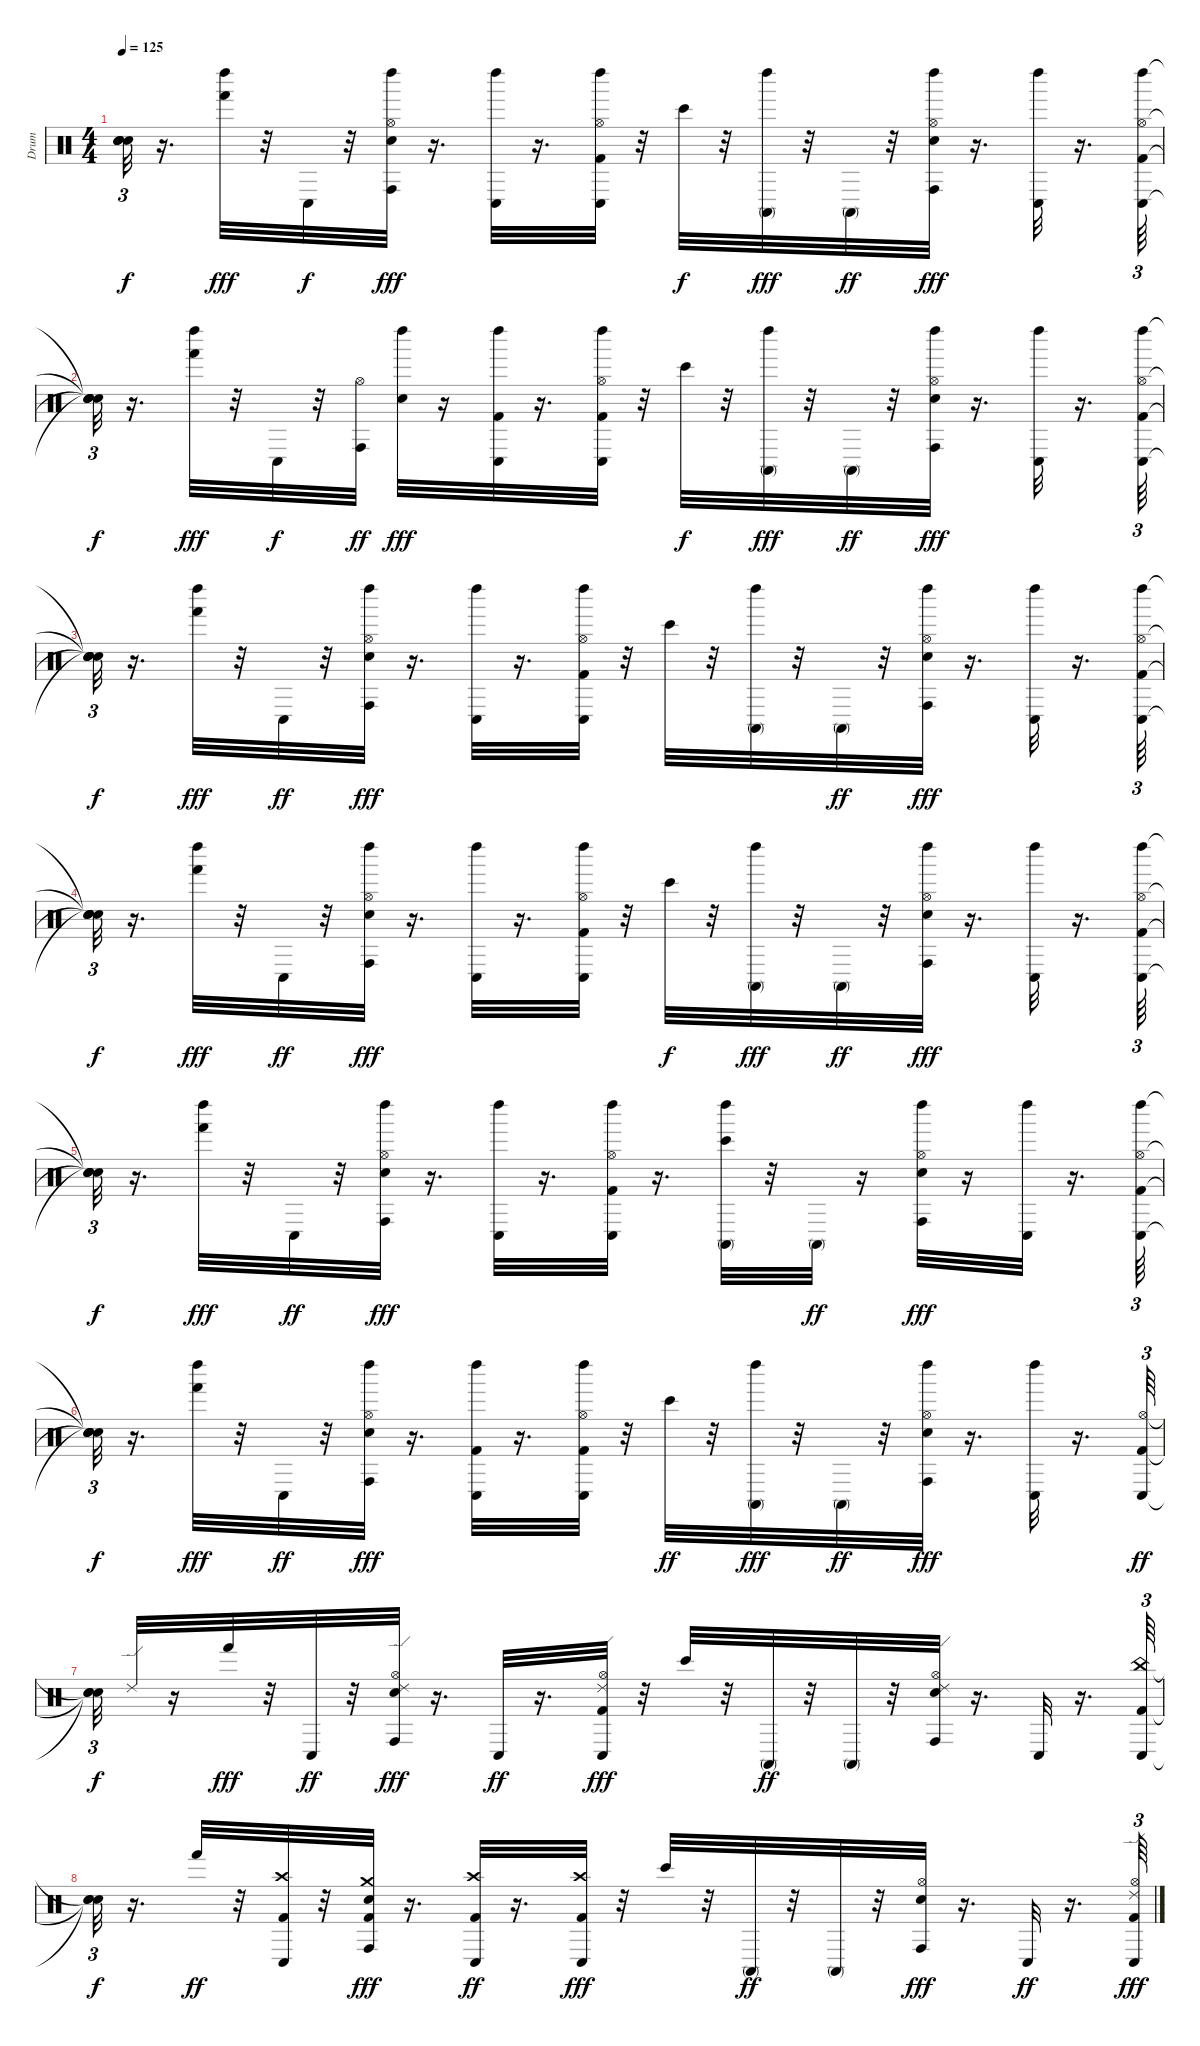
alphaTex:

\track ("Drum" "Drum") {instrument percussion}
\staff {score}
\articulation defaults
\ts (4 4)
\tempo 125
\clef neutral
\ks c
("Snare (hit)"{t} "Snare (hit)"{t} "Snare (hit)"{t} "Snare (hit)"{t}).32{tu (3 2) dy f} r.16{d} ("Hand (hit)" "Left Maraca (hit)").32{dy fff} r.32 "Conga low (hit)".32{dy f} r.32 ("Hi-Hat (open)" "Conga high (hit)" "Left Maraca (hit)" "Electric Snare (hit)").32{dy fff} r.16{d} ("Conga low (hit)" "Left Maraca (hit)").32 r.16{d} ("Kick (hit) 2" "Hi-Hat (open)" "Conga low (hit)" "Left Maraca (hit)").32 r.32 "Bongo High (hit)".32{dy f} r.32 ("Conga high (mute)" "Left Maraca (hit)").32{dy fff} r.32 "Conga high (mute)".32{dy ff} r.32 ("Hi-Hat (open)" "Conga high (hit)" "Left Maraca (hit)" "Electric Snare (hit)").32{dy fff} r.16{d} ("Conga low (hit)" "Left Maraca (hit)").32 r.16{d} ("Kick (hit) 2" "Hi-Hat (open)" "Conga low (hit)" "Left Maraca (hit)").64{tu (3 2)} |
("Snare (hit)"{t} "Snare (hit)"{t} "Snare (hit)"{t} "Snare (hit)"{t}).32{tu (3 2) dy f} r.16{d} ("Hand (hit)" "Left Maraca (hit)").32{dy fff} r.32 "Conga low (hit)".32{dy f} r.32 ("Hi-Hat (open)" "Conga high (hit)").32{dy ff} ("Left Maraca (hit)" "Electric Snare (hit)").32{dy fff} r.16 ("Kick (hit) 2" "Conga low (hit)" "Left Maraca (hit)").32 r.16{d} ("Kick (hit) 2" "Hi-Hat (open)" "Conga low (hit)" "Left Maraca (hit)").32 r.32 "Bongo High (hit)".32{dy f} r.32 ("Conga high (mute)" "Left Maraca (hit)").32{dy fff} r.32 "Conga high (mute)".32{dy ff} r.32 ("Hi-Hat (open)" "Conga high (hit)" "Left Maraca (hit)" "Electric Snare (hit)").32{dy fff} r.16{d} ("Conga low (hit)" "Left Maraca (hit)").32 r.16{d} ("Kick (hit) 2" "Hi-Hat (open)" "Conga low (hit)" "Left Maraca (hit)").64{tu (3 2)} |
("Snare (hit)"{t} "Snare (hit)"{t} "Snare (hit)"{t} "Snare (hit)"{t}).32{tu (3 2) dy f} r.16{d} ("Hand (hit)" "Left Maraca (hit)").32{dy fff} r.32 "Conga low (hit)".32{dy ff} r.32 ("Hi-Hat (open)" "Conga high (hit)" "Left Maraca (hit)" "Electric Snare (hit)").32{dy fff} r.16{d} ("Conga low (hit)" "Left Maraca (hit)").32 r.16{d} ("Kick (hit) 2" "Hi-Hat (open)" "Conga low (hit)" "Left Maraca (hit)").32 r.32 "Bongo High (hit)".32 r.32 ("Conga high (mute)" "Left Maraca (hit)").32 r.32 "Conga high (mute)".32{dy ff} r.32 ("Hi-Hat (open)" "Conga high (hit)" "Left Maraca (hit)" "Electric Snare (hit)").32{dy fff} r.16{d} ("Conga low (hit)" "Left Maraca (hit)").32 r.16{d} ("Kick (hit) 2" "Hi-Hat (open)" "Conga low (hit)" "Left Maraca (hit)").64{tu (3 2)} |
("Snare (hit)"{t} "Snare (hit)"{t} "Snare (hit)"{t} "Snare (hit)"{t}).32{tu (3 2) dy f} r.16{d} ("Hand (hit)" "Left Maraca (hit)").32{dy fff} r.32 "Conga low (hit)".32{dy ff} r.32 ("Hi-Hat (open)" "Conga high (hit)" "Left Maraca (hit)" "Electric Snare (hit)").32{dy fff} r.16{d} ("Conga low (hit)" "Left Maraca (hit)").32 r.16{d} ("Kick (hit) 2" "Hi-Hat (open)" "Conga low (hit)" "Left Maraca (hit)").32 r.32 "Bongo High (hit)".32{dy f} r.32 ("Conga high (mute)" "Left Maraca (hit)").32{dy fff} r.32 "Conga high (mute)".32{dy ff} r.32 ("Hi-Hat (open)" "Conga high (hit)" "Left Maraca (hit)" "Electric Snare (hit)").32{dy fff} r.16{d} ("Conga low (hit)" "Left Maraca (hit)").32 r.16{d} ("Kick (hit) 2" "Hi-Hat (open)" "Conga low (hit)" "Left Maraca (hit)").64{tu (3 2)} |
("Snare (hit)"{t} "Snare (hit)"{t} "Snare (hit)"{t} "Snare (hit)"{t}).32{tu (3 2) dy f} r.16{d} ("Hand (hit)" "Left Maraca (hit)").32{dy fff} r.32 "Conga low (hit)".32{dy ff} r.32 ("Hi-Hat (open)" "Conga high (hit)" "Left Maraca (hit)" "Electric Snare (hit)").32{dy fff} r.16{d} ("Conga low (hit)" "Left Maraca (hit)").32 r.16{d} ("Kick (hit) 2" "Hi-Hat (open)" "Conga low (hit)" "Left Maraca (hit)").32 r.16{d} ("Bongo High (hit)" "Conga high (mute)" "Left Maraca (hit)").32 r.32 "Conga high (mute)".32{dy ff} r.16 ("Hi-Hat (open)" "Conga high (hit)" "Left Maraca (hit)" "Electric Snare (hit)").32{dy fff} r.16 ("Conga low (hit)" "Left Maraca (hit)").32 r.16{d} ("Kick (hit) 2" "Hi-Hat (open)" "Conga low (hit)" "Left Maraca (hit)").64{tu (3 2)} |
("Snare (hit)"{t} "Snare (hit)"{t} "Snare (hit)"{t} "Snare (hit)"{t}).32{tu (3 2) dy f} r.16{d} ("Hand (hit)" "Left Maraca (hit)").32{dy fff} r.32 "Conga low (hit)".32{dy ff} r.32 ("Hi-Hat (open)" "Conga high (hit)" "Left Maraca (hit)" "Electric Snare (hit)").32{dy fff} r.16{d} ("Kick (hit) 2" "Conga low (hit)" "Left Maraca (hit)").32 r.16{d} ("Kick (hit) 2" "Hi-Hat (open)" "Conga low (hit)" "Left Maraca (hit)").32 r.32 "Bongo High (hit)".32{dy ff} r.32 ("Conga high (mute)" "Left Maraca (hit)").32{dy fff} r.32 "Conga high (mute)".32{dy ff} r.32 ("Hi-Hat (open)" "Conga high (hit)" "Left Maraca (hit)" "Electric Snare (hit)").32{dy fff} r.16{d} ("Conga low (hit)" "Left Maraca (hit)").32 r.16{d} ("Kick (hit) 2" "Hi-Hat (open)" "Conga low (hit)").64{tu (3 2) dy ff} |
("Snare (hit)"{t} "Snare (hit)"{t} "Snare (hit)"{t}).32{tu (3 2) dy f} "Ride (edge) 2".32 r.16 "Hand (hit)".32{dy fff} r.32 "Conga low (hit)".32{dy ff} r.32 ("Hi-Hat (open)" "Conga high (hit)" "Electric Snare (hit)" "Ride (edge) 2").32{dy fff} r.16{d} "Conga low (hit)".32{dy ff} r.16{d} ("Kick (hit) 2" "Hi-Hat (open)" "Conga low (hit)" "Ride (edge) 2").32{dy fff} r.32 "Bongo High (hit)".32 r.32 "Conga high (mute)".32{dy ff} r.32 "Conga high (mute)".32 r.32 ("Hi-Hat (open)" "Conga high (hit)" "Electric Snare (hit)" "Ride (edge) 2").32 r.16{d} "Conga low (hit)".32 r.16{d} ("Kick (hit) 2" "Conga low (hit)" "China (hit)").64{tu (3 2)} |
("Snare (hit)"{t} "Snare (hit)"{t} "Snare (hit)"{t}).32{tu (3 2) dy f} r.16{d} "Hand (hit)".32{dy ff} r.32 ("Kick (hit) 2" "Conga low (hit)" "Crash high (hit)").32 r.32 ("Kick (hit) 2" "Conga high (hit)" "Electric Snare (hit)" "Crash medium (hit)").32{dy fff} r.16{d} ("Kick (hit) 2" "Conga low (hit)" "Crash high (hit)").32{dy ff} r.16{d} ("Kick (hit) 2" "Conga low (hit)" "Crash high (hit)").32{dy fff} r.32 "Bongo High (hit)".32 r.32 "Conga high (mute)".32{dy ff} r.32 "Conga high (mute)".32 r.32 ("Hi-Hat (open)" "Conga high (hit)" "Electric Snare (hit)").32{dy fff} r.16{d} "Conga low (hit)".32{dy ff} r.16{d} ("Kick (hit) 2" "Hi-Hat (open)" "Conga low (hit)" "Ride (edge) 2").64{tu (3 2) dy fff}
